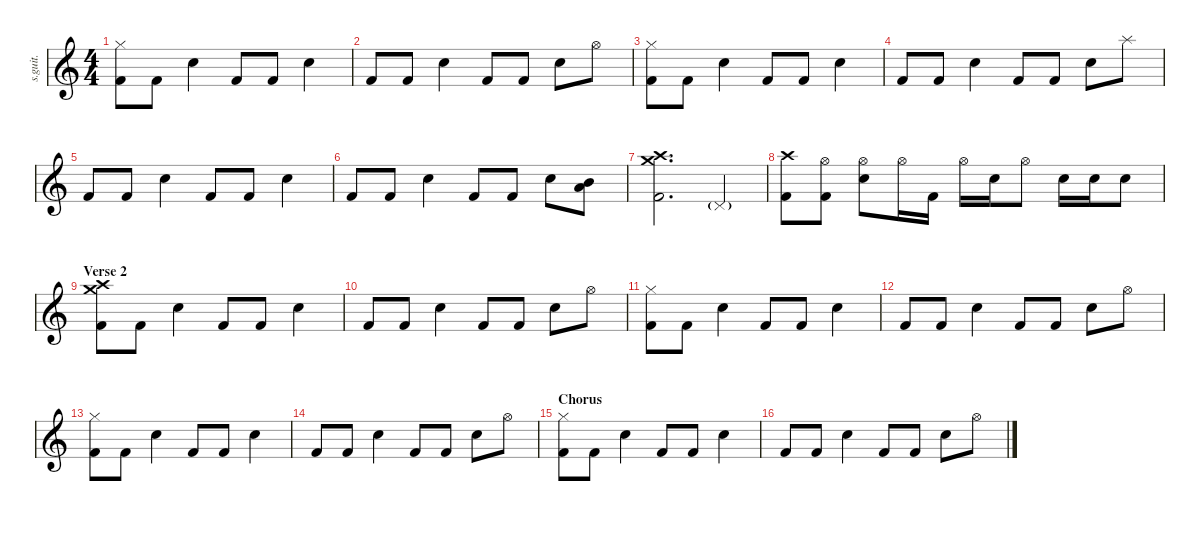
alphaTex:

\defaultSystemsLayout 4
\hideDynamics
\bracketExtendMode nobrackets
\track ("David Lovering" "s.guit.") {instrument percussion}
\staff {score}
\articulation defaults
\ts (4 4)
\tempo (81 hide)
\clef g2
\ks c
("Kick (hit) 2" "Hi-Hat (closed)").8{lyrics (0 "") lyrics (1 "") lyrics (2 "") lyrics (3 "") lyrics (4 "") dy mf} "Kick (hit) 2".8{lyrics (0 "") lyrics (1 "") lyrics (2 "") lyrics (3 "") lyrics (4 "")} "Snare (hit) 2".4{lyrics (0 "") lyrics (1 "") lyrics (2 "") lyrics (3 "") lyrics (4 "")} "Kick (hit) 2".8{lyrics (0 "") lyrics (1 "") lyrics (2 "") lyrics (3 "") lyrics (4 "")} "Kick (hit) 2".8{lyrics (0 "") lyrics (1 "") lyrics (2 "") lyrics (3 "") lyrics (4 "")} "Snare (hit) 2".4{lyrics (0 "") lyrics (1 "") lyrics (2 "") lyrics (3 "") lyrics (4 "")} |
"Kick (hit) 2".8{lyrics (0 "") lyrics (1 "") lyrics (2 "") lyrics (3 "") lyrics (4 "")} "Kick (hit) 2".8{lyrics (0 "") lyrics (1 "") lyrics (2 "") lyrics (3 "") lyrics (4 "")} "Snare (hit) 2".4{lyrics (0 "") lyrics (1 "") lyrics (2 "") lyrics (3 "") lyrics (4 "")} "Kick (hit) 2".8{lyrics (0 "") lyrics (1 "") lyrics (2 "") lyrics (3 "") lyrics (4 "")} "Kick (hit) 2".8{lyrics (0 "") lyrics (1 "") lyrics (2 "") lyrics (3 "") lyrics (4 "")} "Snare (hit) 2".8{lyrics (0 "") lyrics (1 "") lyrics (2 "") lyrics (3 "") lyrics (4 "")} "Hi-Hat (open)".8{lyrics (0 "") lyrics (1 "") lyrics (2 "") lyrics (3 "") lyrics (4 "")} |
("Hi-Hat (closed)" "Kick (hit) 2").8{lyrics (0 "") lyrics (1 "") lyrics (2 "") lyrics (3 "") lyrics (4 "")} "Kick (hit) 2".8{lyrics (0 "") lyrics (1 "") lyrics (2 "") lyrics (3 "") lyrics (4 "")} "Snare (hit) 2".4{lyrics (0 "") lyrics (1 "") lyrics (2 "") lyrics (3 "") lyrics (4 "")} "Kick (hit) 2".8{lyrics (0 "") lyrics (1 "") lyrics (2 "") lyrics (3 "") lyrics (4 "")} "Kick (hit) 2".8{lyrics (0 "") lyrics (1 "") lyrics (2 "") lyrics (3 "") lyrics (4 "")} "Snare (hit) 2".4{lyrics (0 "") lyrics (1 "") lyrics (2 "") lyrics (3 "") lyrics (4 "")} |
"Kick (hit) 2".8{lyrics (0 "") lyrics (1 "") lyrics (2 "") lyrics (3 "") lyrics (4 "")} "Kick (hit) 2".8{lyrics (0 "") lyrics (1 "") lyrics (2 "") lyrics (3 "") lyrics (4 "")} "Snare (hit) 2".4{lyrics (0 "") lyrics (1 "") lyrics (2 "") lyrics (3 "") lyrics (4 "")} "Kick (hit) 2".8{lyrics (0 "") lyrics (1 "") lyrics (2 "") lyrics (3 "") lyrics (4 "")} "Kick (hit) 2".8{lyrics (0 "") lyrics (1 "") lyrics (2 "") lyrics (3 "") lyrics (4 "")} "Snare (hit) 2".8{lyrics (0 "") lyrics (1 "") lyrics (2 "") lyrics (3 "") lyrics (4 "")} "Splash (hit)".8{lyrics (0 "") lyrics (1 "") lyrics (2 "") lyrics (3 "") lyrics (4 "")} |
"Kick (hit) 2".8{lyrics (0 "") lyrics (1 "") lyrics (2 "") lyrics (3 "") lyrics (4 "")} "Kick (hit) 2".8{lyrics (0 "") lyrics (1 "") lyrics (2 "") lyrics (3 "") lyrics (4 "")} "Snare (hit) 2".4{lyrics (0 "") lyrics (1 "") lyrics (2 "") lyrics (3 "") lyrics (4 "")} "Kick (hit) 2".8{lyrics (0 "") lyrics (1 "") lyrics (2 "") lyrics (3 "") lyrics (4 "")} "Kick (hit) 2".8{lyrics (0 "") lyrics (1 "") lyrics (2 "") lyrics (3 "") lyrics (4 "")} "Snare (hit) 2".4{lyrics (0 "") lyrics (1 "") lyrics (2 "") lyrics (3 "") lyrics (4 "")} |
"Kick (hit) 2".8{lyrics (0 "") lyrics (1 "") lyrics (2 "") lyrics (3 "") lyrics (4 "")} "Kick (hit) 2".8{lyrics (0 "") lyrics (1 "") lyrics (2 "") lyrics (3 "") lyrics (4 "")} "Snare (hit) 2".4{lyrics (0 "") lyrics (1 "") lyrics (2 "") lyrics (3 "") lyrics (4 "")} "Kick (hit) 2".8{lyrics (0 "") lyrics (1 "") lyrics (2 "") lyrics (3 "") lyrics (4 "")} "Kick (hit) 2".8{lyrics (0 "") lyrics (1 "") lyrics (2 "") lyrics (3 "") lyrics (4 "")} "Snare (hit) 2".8{lyrics (0 "") lyrics (1 "") lyrics (2 "") lyrics (3 "") lyrics (4 "")} ("Low Tom (hit)" "Mid Tom (hit)").8{lyrics (0 "") lyrics (1 "") lyrics (2 "") lyrics (3 "") lyrics (4 "")} |
("Crash high (hit)" "Crash medium (hit)" "Kick (hit) 2").2{d lyrics (0 "") lyrics (1 "") lyrics (2 "") lyrics (3 "") lyrics (4 "")} "Pedal Hi-Hat (hit)"{g}.4{lyrics (0 "") lyrics (1 "") lyrics (2 "") lyrics (3 "") lyrics (4 "") dy f} |
("Crash high (hit)" "Kick (hit) 2").8{lyrics (0 "") lyrics (1 "") lyrics (2 "") lyrics (3 "") lyrics (4 "") dy mf} ("Hi-Hat (open)" "Kick (hit) 2").8{lyrics (0 "") lyrics (1 "") lyrics (2 "") lyrics (3 "") lyrics (4 "")} ("Snare (hit) 2" "Hi-Hat (open)").8{lyrics (0 "") lyrics (1 "") lyrics (2 "") lyrics (3 "") lyrics (4 "")} "Hi-Hat (open)".16{lyrics (0 "") lyrics (1 "") lyrics (2 "") lyrics (3 "") lyrics (4 "")} "Kick (hit) 2".16{lyrics (0 "") lyrics (1 "") lyrics (2 "") lyrics (3 "") lyrics (4 "")} "Hi-Hat (open)".16{lyrics (0 "") lyrics (1 "") lyrics (2 "") lyrics (3 "") lyrics (4 "")} "Snare (hit) 2".16{lyrics (0 "") lyrics (1 "") lyrics (2 "") lyrics (3 "") lyrics (4 "")} "Hi-Hat (open)".8{lyrics (0 "") lyrics (1 "") lyrics (2 "") lyrics (3 "") lyrics (4 "")} "Snare (hit) 2".16{lyrics (0 "") lyrics (1 "") lyrics (2 "") lyrics (3 "") lyrics (4 "")} "Snare (hit) 2".16{lyrics (0 "") lyrics (1 "") lyrics (2 "") lyrics (3 "") lyrics (4 "")} "Snare (hit) 2".8{lyrics (0 "") lyrics (1 "") lyrics (2 "") lyrics (3 "") lyrics (4 "")} |
\section ("" "Verse 2")
("Crash high (hit)" "Crash medium (hit)" "Kick (hit) 2").8{lyrics (0 "") lyrics (1 "") lyrics (2 "") lyrics (3 "") lyrics (4 "")} "Kick (hit) 2".8{lyrics (0 "") lyrics (1 "") lyrics (2 "") lyrics (3 "") lyrics (4 "")} "Snare (hit) 2".4{lyrics (0 "") lyrics (1 "") lyrics (2 "") lyrics (3 "") lyrics (4 "")} "Kick (hit) 2".8{lyrics (0 "") lyrics (1 "") lyrics (2 "") lyrics (3 "") lyrics (4 "")} "Kick (hit) 2".8{lyrics (0 "") lyrics (1 "") lyrics (2 "") lyrics (3 "") lyrics (4 "")} "Snare (hit) 2".4{lyrics (0 "") lyrics (1 "") lyrics (2 "") lyrics (3 "") lyrics (4 "")} |
"Kick (hit) 2".8{lyrics (0 "") lyrics (1 "") lyrics (2 "") lyrics (3 "") lyrics (4 "")} "Kick (hit) 2".8{lyrics (0 "") lyrics (1 "") lyrics (2 "") lyrics (3 "") lyrics (4 "")} "Snare (hit) 2".4{lyrics (0 "") lyrics (1 "") lyrics (2 "") lyrics (3 "") lyrics (4 "")} "Kick (hit) 2".8{lyrics (0 "") lyrics (1 "") lyrics (2 "") lyrics (3 "") lyrics (4 "")} "Kick (hit) 2".8{lyrics (0 "") lyrics (1 "") lyrics (2 "") lyrics (3 "") lyrics (4 "")} "Snare (hit) 2".8{lyrics (0 "") lyrics (1 "") lyrics (2 "") lyrics (3 "") lyrics (4 "")} "Hi-Hat (open)".8{lyrics (0 "") lyrics (1 "") lyrics (2 "") lyrics (3 "") lyrics (4 "")} |
("Kick (hit) 2" "Hi-Hat (closed)").8{lyrics (0 "") lyrics (1 "") lyrics (2 "") lyrics (3 "") lyrics (4 "")} "Kick (hit) 2".8{lyrics (0 "") lyrics (1 "") lyrics (2 "") lyrics (3 "") lyrics (4 "")} "Snare (hit) 2".4{lyrics (0 "") lyrics (1 "") lyrics (2 "") lyrics (3 "") lyrics (4 "")} "Kick (hit) 2".8{lyrics (0 "") lyrics (1 "") lyrics (2 "") lyrics (3 "") lyrics (4 "")} "Kick (hit) 2".8{lyrics (0 "") lyrics (1 "") lyrics (2 "") lyrics (3 "") lyrics (4 "")} "Snare (hit) 2".4{lyrics (0 "") lyrics (1 "") lyrics (2 "") lyrics (3 "") lyrics (4 "")} |
"Kick (hit) 2".8{lyrics (0 "") lyrics (1 "") lyrics (2 "") lyrics (3 "") lyrics (4 "")} "Kick (hit) 2".8{lyrics (0 "") lyrics (1 "") lyrics (2 "") lyrics (3 "") lyrics (4 "")} "Snare (hit) 2".4{lyrics (0 "") lyrics (1 "") lyrics (2 "") lyrics (3 "") lyrics (4 "")} "Kick (hit) 2".8{lyrics (0 "") lyrics (1 "") lyrics (2 "") lyrics (3 "") lyrics (4 "")} "Kick (hit) 2".8{lyrics (0 "") lyrics (1 "") lyrics (2 "") lyrics (3 "") lyrics (4 "")} "Snare (hit) 2".8{lyrics (0 "") lyrics (1 "") lyrics (2 "") lyrics (3 "") lyrics (4 "")} "Hi-Hat (open)".8{lyrics (0 "") lyrics (1 "") lyrics (2 "") lyrics (3 "") lyrics (4 "")} |
("Kick (hit) 2" "Hi-Hat (closed)").8{lyrics (0 "") lyrics (1 "") lyrics (2 "") lyrics (3 "") lyrics (4 "")} "Kick (hit) 2".8{lyrics (0 "") lyrics (1 "") lyrics (2 "") lyrics (3 "") lyrics (4 "")} "Snare (hit) 2".4{lyrics (0 "") lyrics (1 "") lyrics (2 "") lyrics (3 "") lyrics (4 "")} "Kick (hit) 2".8{lyrics (0 "") lyrics (1 "") lyrics (2 "") lyrics (3 "") lyrics (4 "")} "Kick (hit) 2".8{lyrics (0 "") lyrics (1 "") lyrics (2 "") lyrics (3 "") lyrics (4 "")} "Snare (hit) 2".4{lyrics (0 "") lyrics (1 "") lyrics (2 "") lyrics (3 "") lyrics (4 "")} |
"Kick (hit) 2".8{lyrics (0 "") lyrics (1 "") lyrics (2 "") lyrics (3 "") lyrics (4 "")} "Kick (hit) 2".8{lyrics (0 "") lyrics (1 "") lyrics (2 "") lyrics (3 "") lyrics (4 "")} "Snare (hit) 2".4{lyrics (0 "") lyrics (1 "") lyrics (2 "") lyrics (3 "") lyrics (4 "")} "Kick (hit) 2".8{lyrics (0 "") lyrics (1 "") lyrics (2 "") lyrics (3 "") lyrics (4 "")} "Kick (hit) 2".8{lyrics (0 "") lyrics (1 "") lyrics (2 "") lyrics (3 "") lyrics (4 "")} "Snare (hit) 2".8{lyrics (0 "") lyrics (1 "") lyrics (2 "") lyrics (3 "") lyrics (4 "")} "Hi-Hat (open)".8{lyrics (0 "") lyrics (1 "") lyrics (2 "") lyrics (3 "") lyrics (4 "")} |
\section ("" "Chorus")
("Hi-Hat (closed)" "Kick (hit) 2").8{lyrics (0 "") lyrics (1 "") lyrics (2 "") lyrics (3 "") lyrics (4 "")} "Kick (hit) 2".8{lyrics (0 "") lyrics (1 "") lyrics (2 "") lyrics (3 "") lyrics (4 "")} "Snare (hit) 2".4{lyrics (0 "") lyrics (1 "") lyrics (2 "") lyrics (3 "") lyrics (4 "")} "Kick (hit) 2".8{lyrics (0 "") lyrics (1 "") lyrics (2 "") lyrics (3 "") lyrics (4 "")} "Kick (hit) 2".8{lyrics (0 "") lyrics (1 "") lyrics (2 "") lyrics (3 "") lyrics (4 "")} "Snare (hit) 2".4{lyrics (0 "") lyrics (1 "") lyrics (2 "") lyrics (3 "") lyrics (4 "")} |
"Kick (hit) 2".8{lyrics (0 "") lyrics (1 "") lyrics (2 "") lyrics (3 "") lyrics (4 "")} "Kick (hit) 2".8{lyrics (0 "") lyrics (1 "") lyrics (2 "") lyrics (3 "") lyrics (4 "")} "Snare (hit) 2".4{lyrics (0 "") lyrics (1 "") lyrics (2 "") lyrics (3 "") lyrics (4 "")} "Kick (hit) 2".8{lyrics (0 "") lyrics (1 "") lyrics (2 "") lyrics (3 "") lyrics (4 "")} "Kick (hit) 2".8{lyrics (0 "") lyrics (1 "") lyrics (2 "") lyrics (3 "") lyrics (4 "")} "Snare (hit) 2".8{lyrics (0 "") lyrics (1 "") lyrics (2 "") lyrics (3 "") lyrics (4 "")} "Hi-Hat (open)".8{lyrics (0 "") lyrics (1 "") lyrics (2 "") lyrics (3 "") lyrics (4 "")}
